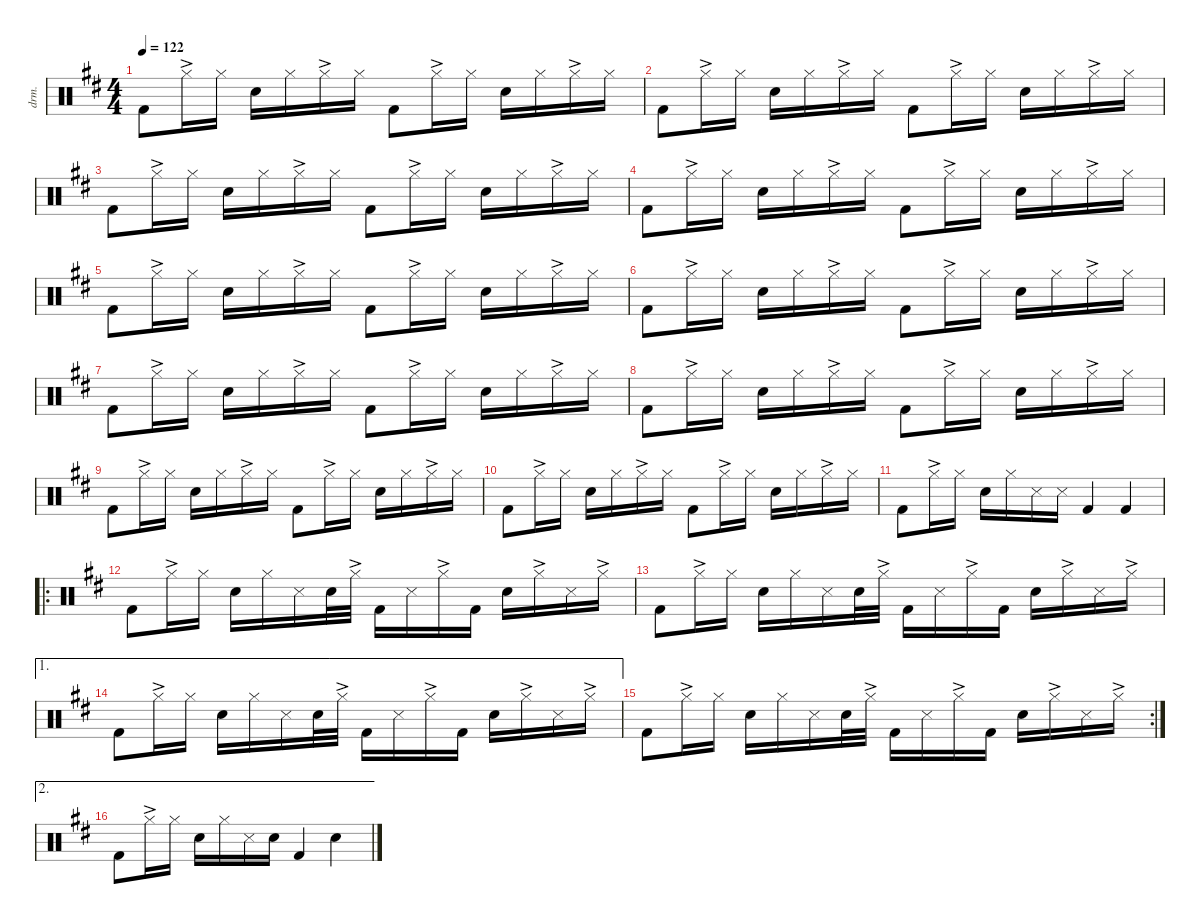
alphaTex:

\defaultSystemsLayout 4
\hideDynamics
\bracketExtendMode nobrackets
\otherSystemsTrackNameOrientation horizontal
\track ("Drumkit" "drm.") {defaultSystemsLayout 4 instrument percussion}
\staff {score}
\articulation defaults
\ts (4 4)
\tempo 122
\clef neutral
\ks d "Kick (hit) 2"{acc forcenatural}.8{dy mf beam Down} "Hi-Hat (closed)"{ac acc forcenatural}.16{beam Down} "Hi-Hat (closed)"{acc forcenatural}.16{beam Down} "Snare (hit) 2"{acc forcenatural}.16{beam Down} "Hi-Hat (closed)"{acc forcenatural}.16{beam Down} "Hi-Hat (closed)"{ac acc forcenatural}.16{beam Down} "Hi-Hat (closed)"{acc forcenatural}.16{beam Down} "Kick (hit) 2"{acc forcenatural}.8{beam Down} "Hi-Hat (closed)"{ac acc forcenatural}.16{beam Down} "Hi-Hat (closed)"{acc forcenatural}.16{beam Down} "Snare (hit) 2"{acc forcenatural}.16{beam Down} "Hi-Hat (closed)"{acc forcenatural}.16{beam Down} "Hi-Hat (closed)"{ac acc forcenatural}.16{beam Down} "Hi-Hat (closed)"{acc forcenatural}.16{beam Down}
|
"Kick (hit) 2"{acc forcenatural}.8{beam Down} "Hi-Hat (closed)"{ac acc forcenatural}.16{beam Down} "Hi-Hat (closed)"{acc forcenatural}.16{beam Down} "Snare (hit) 2"{acc forcenatural}.16{beam Down} "Hi-Hat (closed)"{acc forcenatural}.16{beam Down} "Hi-Hat (closed)"{ac acc forcenatural}.16{beam Down} "Hi-Hat (closed)"{acc forcenatural}.16{beam Down} "Kick (hit) 2"{acc forcenatural}.8{beam Down} "Hi-Hat (closed)"{ac acc forcenatural}.16{beam Down} "Hi-Hat (closed)"{acc forcenatural}.16{beam Down} "Snare (hit) 2"{acc forcenatural}.16{beam Down} "Hi-Hat (closed)"{acc forcenatural}.16{beam Down} "Hi-Hat (closed)"{ac acc forcenatural}.16{beam Down} "Hi-Hat (closed)"{acc forcenatural}.16{beam Down} |
"Kick (hit) 2"{acc forcenatural}.8{beam Down} "Hi-Hat (closed)"{ac acc forcenatural}.16{beam Down} "Hi-Hat (closed)"{acc forcenatural}.16{beam Down} "Snare (hit) 2"{acc forcenatural}.16{beam Down} "Hi-Hat (closed)"{acc forcenatural}.16{beam Down} "Hi-Hat (closed)"{ac acc forcenatural}.16{beam Down} "Hi-Hat (closed)"{acc forcenatural}.16{beam Down} "Kick (hit) 2"{acc forcenatural}.8{beam Down} "Hi-Hat (closed)"{ac acc forcenatural}.16{beam Down} "Hi-Hat (closed)"{acc forcenatural}.16{beam Down} "Snare (hit) 2"{acc forcenatural}.16{beam Down} "Hi-Hat (closed)"{acc forcenatural}.16{beam Down} "Hi-Hat (closed)"{ac acc forcenatural}.16{beam Down} "Hi-Hat (closed)"{acc forcenatural}.16{beam Down} |
"Kick (hit) 2"{acc forcenatural}.8{beam Down} "Hi-Hat (closed)"{ac acc forcenatural}.16{beam Down} "Hi-Hat (closed)"{acc forcenatural}.16{beam Down} "Snare (hit) 2"{acc forcenatural}.16{beam Down} "Hi-Hat (closed)"{acc forcenatural}.16{beam Down} "Hi-Hat (closed)"{ac acc forcenatural}.16{beam Down} "Hi-Hat (closed)"{acc forcenatural}.16{beam Down} "Kick (hit) 2"{acc forcenatural}.8{beam Down} "Hi-Hat (closed)"{ac acc forcenatural}.16{beam Down} "Hi-Hat (closed)"{acc forcenatural}.16{beam Down} "Snare (hit) 2"{acc forcenatural}.16{beam Down} "Hi-Hat (closed)"{acc forcenatural}.16{beam Down} "Hi-Hat (closed)"{ac acc forcenatural}.16{beam Down} "Hi-Hat (closed)"{acc forcenatural}.16{beam Down} |
"Kick (hit) 2"{acc forcenatural}.8{beam Down} "Hi-Hat (closed)"{ac acc forcenatural}.16{beam Down} "Hi-Hat (closed)"{acc forcenatural}.16{beam Down} "Snare (hit) 2"{acc forcenatural}.16{beam Down} "Hi-Hat (closed)"{acc forcenatural}.16{beam Down} "Hi-Hat (closed)"{ac acc forcenatural}.16{beam Down} "Hi-Hat (closed)"{acc forcenatural}.16{beam Down} "Kick (hit) 2"{acc forcenatural}.8{beam Down} "Hi-Hat (closed)"{ac acc forcenatural}.16{beam Down} "Hi-Hat (closed)"{acc forcenatural}.16{beam Down} "Snare (hit) 2"{acc forcenatural}.16{beam Down} "Hi-Hat (closed)"{acc forcenatural}.16{beam Down} "Hi-Hat (closed)"{ac acc forcenatural}.16{beam Down} "Hi-Hat (closed)"{acc forcenatural}.16{beam Down} |
"Kick (hit) 2"{acc forcenatural}.8{beam Down} "Hi-Hat (closed)"{ac acc forcenatural}.16{beam Down} "Hi-Hat (closed)"{acc forcenatural}.16{beam Down} "Snare (hit) 2"{acc forcenatural}.16{beam Down} "Hi-Hat (closed)"{acc forcenatural}.16{beam Down} "Hi-Hat (closed)"{ac acc forcenatural}.16{beam Down} "Hi-Hat (closed)"{acc forcenatural}.16{beam Down} "Kick (hit) 2"{acc forcenatural}.8{beam Down} "Hi-Hat (closed)"{ac acc forcenatural}.16{beam Down} "Hi-Hat (closed)"{acc forcenatural}.16{beam Down} "Snare (hit) 2"{acc forcenatural}.16{beam Down} "Hi-Hat (closed)"{acc forcenatural}.16{beam Down} "Hi-Hat (closed)"{ac acc forcenatural}.16{beam Down} "Hi-Hat (closed)"{acc forcenatural}.16{beam Down} |
"Kick (hit) 2"{acc forcenatural}.8{beam Down} "Hi-Hat (closed)"{ac acc forcenatural}.16{beam Down} "Hi-Hat (closed)"{acc forcenatural}.16{beam Down} "Snare (hit) 2"{acc forcenatural}.16{beam Down} "Hi-Hat (closed)"{acc forcenatural}.16{beam Down} "Hi-Hat (closed)"{ac acc forcenatural}.16{beam Down} "Hi-Hat (closed)"{acc forcenatural}.16{beam Down} "Kick (hit) 2"{acc forcenatural}.8{beam Down} "Hi-Hat (closed)"{ac acc forcenatural}.16{beam Down} "Hi-Hat (closed)"{acc forcenatural}.16{beam Down} "Snare (hit) 2"{acc forcenatural}.16{beam Down} "Hi-Hat (closed)"{acc forcenatural}.16{beam Down} "Hi-Hat (closed)"{ac acc forcenatural}.16{beam Down} "Hi-Hat (closed)"{acc forcenatural}.16{beam Down} |
"Kick (hit) 2"{acc forcenatural}.8{beam Down} "Hi-Hat (closed)"{ac acc forcenatural}.16{beam Down} "Hi-Hat (closed)"{acc forcenatural}.16{beam Down} "Snare (hit) 2"{acc forcenatural}.16{beam Down} "Hi-Hat (closed)"{acc forcenatural}.16{beam Down} "Hi-Hat (closed)"{ac acc forcenatural}.16{beam Down} "Hi-Hat (closed)"{acc forcenatural}.16{beam Down} "Kick (hit) 2"{acc forcenatural}.8{beam Down} "Hi-Hat (closed)"{ac acc forcenatural}.16{beam Down} "Hi-Hat (closed)"{acc forcenatural}.16{beam Down} "Snare (hit) 2"{acc forcenatural}.16{beam Down} "Hi-Hat (closed)"{acc forcenatural}.16{beam Down} "Hi-Hat (closed)"{ac acc forcenatural}.16{beam Down} "Hi-Hat (closed)"{acc forcenatural}.16{beam Down} |
"Kick (hit) 2"{acc forcenatural}.8{beam Down} "Hi-Hat (closed)"{ac acc forcenatural}.16{beam Down} "Hi-Hat (closed)"{acc forcenatural}.16{beam Down} "Snare (hit) 2"{acc forcenatural}.16{beam Down} "Hi-Hat (closed)"{acc forcenatural}.16{beam Down} "Hi-Hat (closed)"{ac acc forcenatural}.16{beam Down} "Hi-Hat (closed)"{acc forcenatural}.16{beam Down} "Kick (hit) 2"{acc forcenatural}.8{beam Down} "Hi-Hat (closed)"{ac acc forcenatural}.16{beam Down} "Hi-Hat (closed)"{acc forcenatural}.16{beam Down} "Snare (hit) 2"{acc forcenatural}.16{beam Down} "Hi-Hat (closed)"{acc forcenatural}.16{beam Down} "Hi-Hat (closed)"{ac acc forcenatural}.16{beam Down} "Hi-Hat (closed)"{acc forcenatural}.16{beam Down} |
"Kick (hit) 2"{acc forcenatural}.8{beam Down} "Hi-Hat (closed)"{ac acc forcenatural}.16{beam Down} "Hi-Hat (closed)"{acc forcenatural}.16{beam Down} "Snare (hit) 2"{acc forcenatural}.16{beam Down} "Hi-Hat (closed)"{acc forcenatural}.16{beam Down} "Hi-Hat (closed)"{ac acc forcenatural}.16{beam Down} "Hi-Hat (closed)"{acc forcenatural}.16{beam Down} "Kick (hit) 2"{acc forcenatural}.8{beam Down} "Hi-Hat (closed)"{ac acc forcenatural}.16{beam Down} "Hi-Hat (closed)"{acc forcenatural}.16{beam Down} "Snare (hit) 2"{acc forcenatural}.16{beam Down} "Hi-Hat (closed)"{acc forcenatural}.16{beam Down} "Hi-Hat (closed)"{ac acc forcenatural}.16{beam Down} "Hi-Hat (closed)"{acc forcenatural}.16{beam Down} |
"Kick (hit) 2"{acc forcenatural}.8{beam Down} "Hi-Hat (closed)"{ac acc forcenatural}.16{beam Down} "Hi-Hat (closed)"{acc forcenatural}.16{beam Down} "Snare (hit) 2"{acc forcenatural}.16{beam Down} "Hi-Hat (closed)"{acc forcenatural}.16{beam Down} "Snare (side stick) 3"{acc forcenatural}.16{beam Down} "Snare (side stick) 3"{acc forcenatural}.16{beam Down} "Kick (hit) 2"{acc forcenatural}.4{beam Up} "Kick (hit) 2"{acc forcenatural}.4{beam Up} |
\ro "Kick (hit) 2"{acc forcenatural}.8{beam Down} "Hi-Hat (closed)"{ac acc forcenatural}.16{beam Down} "Hi-Hat (closed)"{acc forcenatural}.16{beam Down} "Snare (hit) 2"{acc forcenatural}.16{beam Down} "Hi-Hat (closed)"{acc forcenatural}.16{beam Down} "Snare (side stick) 3"{acc forcenatural}.16{beam Down} "Snare (hit) 2"{acc forcenatural}.32{beam Down} "Hi-Hat (closed)"{ac acc forcenatural}.32{beam Down} "Kick (hit) 2"{acc forcenatural}.16{beam Down} "Snare (side stick) 3"{acc forcenatural}.16{beam Down} "Hi-Hat (closed)"{ac acc forcenatural}.16{beam Down} "Kick (hit) 2"{acc forcenatural}.16{beam Down} "Snare (hit) 2"{acc forcenatural}.16{beam Down} "Hi-Hat (closed)"{ac acc forcenatural}.16{beam Down} "Snare (side stick) 3"{acc forcenatural}.16{beam Down} "Hi-Hat (closed)"{ac acc forcenatural}.16{beam Down}
|
"Kick (hit) 2"{acc forcenatural}.8{beam Down} "Hi-Hat (closed)"{ac acc forcenatural}.16{beam Down} "Hi-Hat (closed)"{acc forcenatural}.16{beam Down} "Snare (hit) 2"{acc forcenatural}.16{beam Down} "Hi-Hat (closed)"{acc forcenatural}.16{beam Down} "Snare (side stick) 3"{acc forcenatural}.16{beam Down} "Snare (hit) 2"{acc forcenatural}.32{beam Down} "Hi-Hat (closed)"{ac acc forcenatural}.32{beam Down} "Kick (hit) 2"{acc forcenatural}.16{beam Down} "Snare (side stick) 3"{acc forcenatural}.16{beam Down} "Hi-Hat (closed)"{ac acc forcenatural}.16{beam Down} "Kick (hit) 2"{acc forcenatural}.16{beam Down} "Snare (hit) 2"{acc forcenatural}.16{beam Down} "Hi-Hat (closed)"{ac acc forcenatural}.16{beam Down} "Snare (side stick) 3"{acc forcenatural}.16{beam Down} "Hi-Hat (closed)"{ac acc forcenatural}.16{beam Down} |
\ae 1 "Kick (hit) 2"{acc forcenatural}.8{beam Down} "Hi-Hat (closed)"{ac acc forcenatural}.16{beam Down} "Hi-Hat (closed)"{acc forcenatural}.16{beam Down} "Snare (hit) 2"{acc forcenatural}.16{beam Down} "Hi-Hat (closed)"{acc forcenatural}.16{beam Down} "Snare (side stick) 3"{acc forcenatural}.16{beam Down} "Snare (hit) 2"{acc forcenatural}.32{beam Down} "Hi-Hat (closed)"{ac acc forcenatural}.32{beam Down} "Kick (hit) 2"{acc forcenatural}.16{beam Down} "Snare (side stick) 3"{acc forcenatural}.16{beam Down} "Hi-Hat (closed)"{ac acc forcenatural}.16{beam Down} "Kick (hit) 2"{acc forcenatural}.16{beam Down} "Snare (hit) 2"{acc forcenatural}.16{beam Down} "Hi-Hat (closed)"{ac acc forcenatural}.16{beam Down} "Snare (side stick) 3"{acc forcenatural}.16{beam Down} "Hi-Hat (closed)"{ac acc forcenatural}.16{beam Down}
|
\rc 2 "Kick (hit) 2"{acc forcenatural}.8{beam Down} "Hi-Hat (closed)"{ac acc forcenatural}.16{beam Down} "Hi-Hat (closed)"{acc forcenatural}.16{beam Down} "Snare (hit) 2"{acc forcenatural}.16{beam Down} "Hi-Hat (closed)"{acc forcenatural}.16{beam Down} "Snare (side stick) 3"{acc forcenatural}.16{beam Down} "Snare (hit) 2"{acc forcenatural}.32{beam Down} "Hi-Hat (closed)"{ac acc forcenatural}.32{beam Down} "Kick (hit) 2"{acc forcenatural}.16{beam Down} "Snare (side stick) 3"{acc forcenatural}.16{beam Down} "Hi-Hat (closed)"{ac acc forcenatural}.16{beam Down} "Kick (hit) 2"{acc forcenatural}.16{beam Down} "Snare (hit) 2"{acc forcenatural}.16{beam Down} "Hi-Hat (closed)"{ac acc forcenatural}.16{beam Down} "Snare (side stick) 3"{acc forcenatural}.16{beam Down} "Hi-Hat (closed)"{ac acc forcenatural}.16{beam Down}
|
\ae 2 "Kick (hit) 2"{acc forcenatural}.8{beam Down} "Hi-Hat (closed)"{ac acc forcenatural}.16{beam Down} "Hi-Hat (closed)"{acc forcenatural}.16{beam Down} "Snare (hit) 2"{acc forcenatural}.16{beam Down} "Hi-Hat (closed)"{acc forcenatural}.16{beam Down} "Snare (side stick) 3"{acc forcenatural}.16{beam Down} "Snare (hit) 2"{acc forcenatural}.16{beam Down} "Kick (hit) 2"{acc forcenatural}.4{beam Up} "Snare (hit) 2"{acc forcenatural}.4{beam Down}
